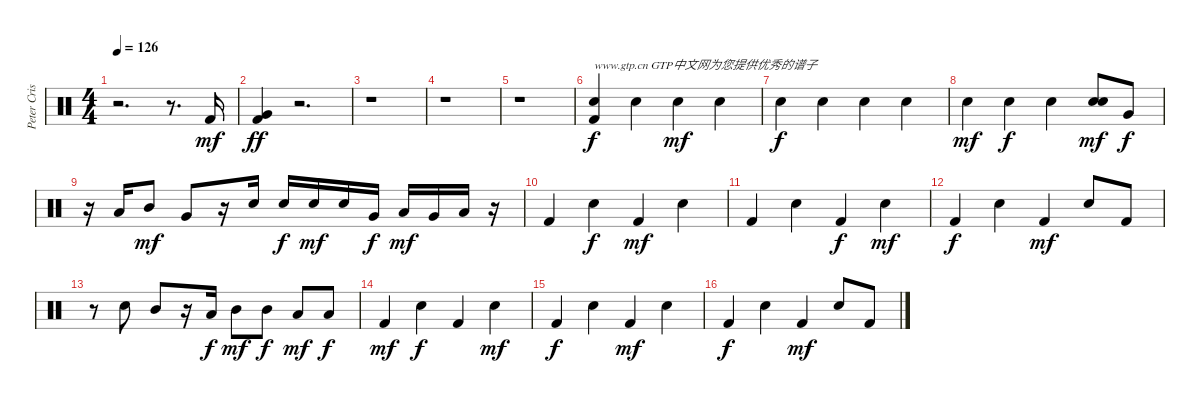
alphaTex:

\track ("Peter Criss" "Peter Cris") {instrument percussion}
\staff {score}
\articulation defaults
\ts (4 4)
\tempo 126
\clef neutral
\ks c
r.2{d dy mf} r.8{d} "Kick (hit) 2".16 |
("Kick (hit) 2" "Very Low Tom (hit)").4{dy ff} r.2{d} |
r.1 |
r.1 |
r.1 |
("Kick (hit) 2" "Electric Snare (hit)").4{txt "www.gtp.cn GTP中文网为您提供优秀的谱子" dy f} "Electric Snare (hit)".4 "Electric Snare (hit)".4{dy mf} "Electric Snare (hit)".4 |
"Electric Snare (hit)".4{dy f} "Electric Snare (hit)".4 "Electric Snare (hit)".4 "Electric Snare (hit)".4 |
"Electric Snare (hit)".4{dy mf} "Electric Snare (hit)".4{dy f} "Electric Snare (hit)".4 ("Electric Snare (hit)" "Electric Snare (hit)").8{dy mf} "Very Low Tom (hit)".8{dy f} |
r.16 "Low Tom (hit)".16 "Mid Tom (hit)".8{dy mf} "Very Low Tom (hit)".8 r.16 "Electric Snare (hit)".16 "Electric Snare (hit)".16{dy f} "Electric Snare (hit)".16{dy mf} "Electric Snare (hit)".16 "Very Low Tom (hit)".16{dy f} "Low Tom (hit)".16{dy mf} "Very Low Tom (hit)".16 "Low Tom (hit)".16 r.16 |
"Kick (hit) 2".4 "Electric Snare (hit)".4{dy f} "Kick (hit) 2".4{dy mf} "Electric Snare (hit)".4 |
"Kick (hit) 2".4 "Electric Snare (hit)".4 "Kick (hit) 2".4{dy f} "Electric Snare (hit)".4{dy mf} |
"Kick (hit) 2".4{dy f} "Electric Snare (hit)".4 "Kick (hit) 2".4{dy mf} "Electric Snare (hit)".8 "Kick (hit) 2".8 |
r.8 "Electric Snare (hit)".8 "Mid Tom (hit)".8 r.16 "Low Tom (hit)".16{dy f} "Mid Tom (hit)".8{dy mf} "Mid Tom (hit)".8{dy f} "Low Tom (hit)".8{dy mf} "Low Tom (hit)".8{dy f} |
"Kick (hit) 2".4{dy mf} "Electric Snare (hit)".4{dy f} "Kick (hit) 2".4 "Electric Snare (hit)".4{dy mf} |
"Kick (hit) 2".4{dy f} "Electric Snare (hit)".4 "Kick (hit) 2".4{dy mf} "Electric Snare (hit)".4 |
"Kick (hit) 2".4{dy f} "Electric Snare (hit)".4 "Kick (hit) 2".4{dy mf} "Electric Snare (hit)".8 "Kick (hit) 2".8
